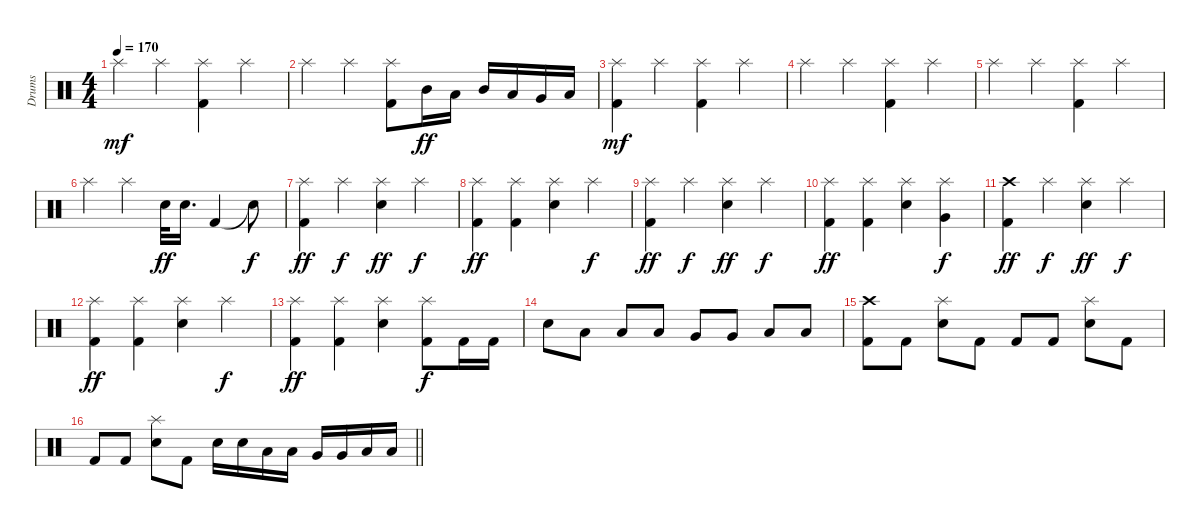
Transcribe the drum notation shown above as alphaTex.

\track ("Drums" "Drums") {instrument percussion}
\staff {score}
\articulation defaults
\ts (4 4)
\tempo 170
\clef neutral
\ks c "Splash (hit)".4{dy mf} "Splash (hit)".4
("Kick (hit) 2" "Splash (hit)").4 "Splash (hit)".4 |
"Splash (hit)".4 "Splash (hit)".4 ("Kick (hit) 2" "Splash (hit)").8 "Mid Tom (hit)".16{dy ff} "Low Tom (hit)".16 "Mid Tom (hit)".16 "Low Tom (hit)".16 "Very Low Tom (hit)".16 "Low Floor Tom (hit)".16 |
("Kick (hit) 2" "Splash (hit)").4{dy mf} "Splash (hit)".4 ("Kick (hit) 2" "Splash (hit)").4 "Splash (hit)".4 |
"Splash (hit)".4 "Splash (hit)".4 ("Kick (hit) 2" "Splash (hit)").4 "Splash (hit)".4 |
"Splash (hit)".4 "Splash (hit)".4 ("Kick (hit) 2" "Splash (hit)").4 "Splash (hit)".4 |
"Splash (hit)".4 "Splash (hit)".4 "Electric Snare (hit)".32{dy ff} "Electric Snare (hit)".16{d} "Kick (hit) 2".4 "Snare (hit)"{t}.8{dy f} |
("Kick (hit) 2" "Splash (hit)").4{dy ff} "Splash (hit)".4{dy f} ("Electric Snare (hit)" "Splash (hit)").4{dy ff} "Splash (hit)".4{dy f} |
("Kick (hit) 2" "Splash (hit)").4{dy ff} ("Kick (hit) 2" "Splash (hit)").4 ("Electric Snare (hit)" "Splash (hit)").4 "Splash (hit)".4{dy f} |
("Kick (hit) 2" "Splash (hit)").4{dy ff} "Splash (hit)".4{dy f} ("Electric Snare (hit)" "Splash (hit)").4{dy ff} "Splash (hit)".4{dy f} |
("Kick (hit) 2" "Splash (hit)").4{dy ff} ("Kick (hit) 2" "Splash (hit)").4 ("Electric Snare (hit)" "Splash (hit)").4 ("Very Low Tom (hit)" "Splash (hit)").4{dy f} |
("Kick (hit) 2" "Crash high (hit)").4{dy ff} "Splash (hit)".4{dy f} ("Electric Snare (hit)" "Splash (hit)").4{dy ff} "Splash (hit)".4{dy f} |
("Kick (hit) 2" "Splash (hit)").4{dy ff} ("Kick (hit) 2" "Splash (hit)").4 ("Electric Snare (hit)" "Splash (hit)").4 "Splash (hit)".4{dy f} |
("Kick (hit) 2" "Splash (hit)").4{dy ff} ("Kick (hit) 2" "Splash (hit)").4 ("Electric Snare (hit)" "Splash (hit)").4 ("Kick (hit) 2" "Splash (hit)").8{dy f} "Kick (hit) 2".16 "Kick (hit) 2".16 |
"Electric Snare (hit)".8 "Low Tom (hit)".8 "Low Tom (hit)".8 "Low Tom (hit)".8 "Very Low Tom (hit)".8 "Very Low Tom (hit)".8 "Low Floor Tom (hit)".8 "Low Floor Tom (hit)".8 |
("Kick (hit) 2" "Crash high (hit)").8 "Kick (hit) 2".8 ("Electric Snare (hit)" "Splash (hit)").8 "Kick (hit) 2".8 "Kick (hit) 2".8 "Kick (hit) 2".8 ("Electric Snare (hit)" "Splash (hit)").8 "Kick (hit) 2".8 |
\barLineRight lightlight "Kick (hit) 2".8 "Kick (hit) 2".8
("Electric Snare (hit)" "Splash (hit)").8 "Kick (hit) 2".8 "Electric Snare (hit)".16 "Electric Snare (hit)".16 "Low Tom (hit)".16 "Low Tom (hit)".16 "Very Low Tom (hit)".16 "Very Low Tom (hit)".16 "Low Floor Tom (hit)".16 "Low Floor Tom (hit)".16
